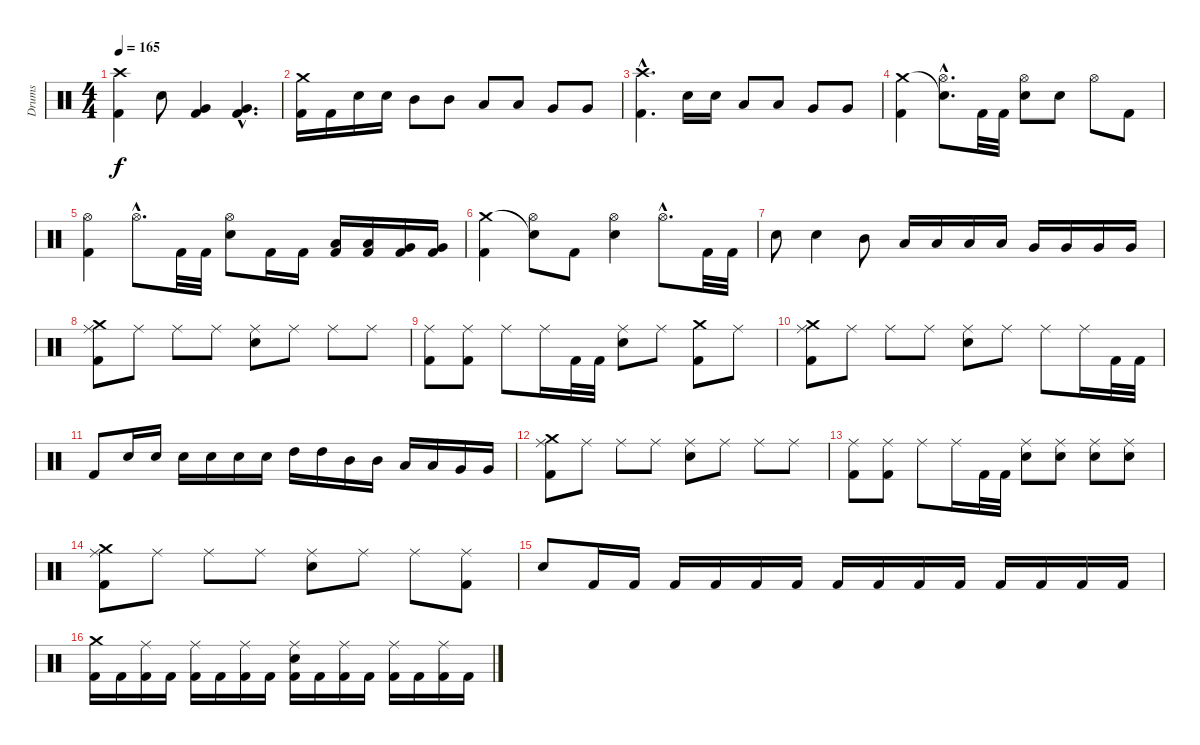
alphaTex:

\track ("Drums" "Drums") {instrument percussion}
\staff {score}
\articulation defaults
\ts (4 4)
\tempo 165
\clef neutral
\ks c
("Kick (hit) 2" "Crash high (hit)").4{dy f} "Electric Snare (hit)".8 ("Kick (hit) 2" "Very Low Tom (hit)").4 ("Kick (hit) 2"{hac} "Very Low Tom (hit)"{hac}).4{d} |
("Kick (hit) 2" "Crash medium (hit)").16 "Kick (hit) 2".16 "Electric Snare (hit)".16 "Electric Snare (hit)".16 "Mid Tom (hit)".8 "Mid Tom (hit)".8 "Low Tom (hit)".8 "Low Tom (hit)".8 "Very Low Tom (hit)".8 "Very Low Tom (hit)".8 |
("Kick (hit) 2"{hac} "Crash high (hit)"{hac}).4{d} "Electric Snare (hit)".16 "Electric Snare (hit)".16 "Low Tom (hit)".8 "Low Tom (hit)".8 "Very Low Tom (hit)".8 "Very Low Tom (hit)".8 |
("Kick (hit) 2" "Crash medium (hit)").4 ("Hi-Hat (open)"{hac} "Snare (hit)"{hac t}).8{d} "Kick (hit) 2".32 "Kick (hit) 2".32 ("Electric Snare (hit)" "Hi-Hat (open)").8 "Electric Snare (hit)".8 "Hi-Hat (open)".8 "Kick (hit) 2".8 |
("Kick (hit) 2" "Hi-Hat (open)").4 "Hi-Hat (open)"{hac}.8{d} "Kick (hit) 2".32 "Kick (hit) 2".32 ("Electric Snare (hit)" "Hi-Hat (open)").8 "Kick (hit) 2".16 "Kick (hit) 2".16 ("Kick (hit) 2" "Low Tom (hit)").16 ("Kick (hit) 2" "Low Tom (hit)").16 ("Kick (hit) 2" "Very Low Tom (hit)").16 ("Kick (hit) 2" "Very Low Tom (hit)").16 |
("Kick (hit) 2" "Crash medium (hit)").4 ("Hi-Hat (open)" "Snare (hit)"{t}).8 "Kick (hit) 2".8 ("Electric Snare (hit)" "Hi-Hat (open)").4 "Hi-Hat (open)"{hac}.8{d} "Kick (hit) 2".32 "Kick (hit) 2".32 |
"Electric Snare (hit)".8 "Electric Snare (hit)".4 "Mid Tom (hit)".8 "Low Tom (hit)".16 "Low Tom (hit)".16 "Low Tom (hit)".16 "Low Tom (hit)".16 "Very Low Tom (hit)".16 "Very Low Tom (hit)".16 "Very Low Tom (hit)".16 "Very Low Tom (hit)".16 |
("Kick (hit) 2" "Ride (middle)" "Crash medium (hit)").8 "Ride (middle)".8 "Ride (middle)".8 "Ride (middle)".8 ("Electric Snare (hit)" "Ride (middle)").8 "Ride (middle)".8 "Ride (middle)".8 "Ride (middle)".8 |
("Kick (hit) 2" "Ride (middle)").8 ("Kick (hit) 2" "Ride (middle)").8 "Ride (middle)".8 "Ride (middle)".16 "Kick (hit) 2".32 "Kick (hit) 2".32 ("Electric Snare (hit)" "Ride (middle)").8 "Ride (middle)".8 ("Kick (hit) 2" "Crash medium (hit)").8 "Ride (middle)".8 |
("Kick (hit) 2" "Ride (middle)" "Crash medium (hit)").8 "Ride (middle)".8 "Ride (middle)".8 "Ride (middle)".8 ("Electric Snare (hit)" "Ride (middle)").8 "Ride (middle)".8 "Ride (middle)".8 "Ride (middle)".16 "Kick (hit) 2".32 "Kick (hit) 2".32 |
"Kick (hit) 2".8 "Electric Snare (hit)".16 "Electric Snare (hit)".16 "Electric Snare (hit)".16 "Electric Snare (hit)".16 "Electric Snare (hit)".16 "Electric Snare (hit)".16 "High Tom (hit)".16 "High Tom (hit)".16 "Mid Tom (hit)".16 "Mid Tom (hit)".16 "Low Tom (hit)".16 "Low Tom (hit)".16 "Very Low Tom (hit)".16 "Very Low Tom (hit)".16 |
("Kick (hit) 2" "Ride (middle)" "Crash medium (hit)").8 "Ride (middle)".8 "Ride (middle)".8 "Ride (middle)".8 ("Electric Snare (hit)" "Ride (middle)").8 "Ride (middle)".8 "Ride (middle)".8 "Ride (middle)".8 |
("Kick (hit) 2" "Ride (middle)").8 ("Kick (hit) 2" "Ride (middle)").8 "Ride (middle)".8 "Ride (middle)".16 "Kick (hit) 2".32 "Kick (hit) 2".32 ("Electric Snare (hit)" "Ride (middle)").8 ("Electric Snare (hit)" "Ride (middle)").8 ("Electric Snare (hit)" "Ride (middle)").8 ("Electric Snare (hit)" "Ride (middle)").8 |
("Kick (hit) 2" "Ride (middle)" "Crash medium (hit)").8 "Ride (middle)".8 "Ride (middle)".8 "Ride (middle)".8 ("Electric Snare (hit)" "Ride (middle)").8 "Ride (middle)".8 "Ride (middle)".8 ("Kick (hit) 2" "Ride (middle)").8 |
"Electric Snare (hit)".8 "Kick (hit) 2".16 "Kick (hit) 2".16 "Kick (hit) 2".16 "Kick (hit) 2".16 "Kick (hit) 2".16 "Kick (hit) 2".16 "Kick (hit) 2".16 "Kick (hit) 2".16 "Kick (hit) 2".16 "Kick (hit) 2".16 "Kick (hit) 2".16 "Kick (hit) 2".16 "Kick (hit) 2".16 "Kick (hit) 2".16 |
("Kick (hit) 2" "Crash medium (hit)").16 "Kick (hit) 2".16 ("Kick (hit) 2" "Ride (middle)").16 "Kick (hit) 2".16 ("Kick (hit) 2" "Ride (middle)").16 "Kick (hit) 2".16 ("Kick (hit) 2" "Ride (middle)").16 "Kick (hit) 2".16 ("Kick (hit) 2" "Electric Snare (hit)" "Ride (middle)").16 "Kick (hit) 2".16 ("Kick (hit) 2" "Ride (middle)").16 "Kick (hit) 2".16 ("Kick (hit) 2" "Ride (middle)").16 "Kick (hit) 2".16 ("Kick (hit) 2" "Ride (middle)").16 "Kick (hit) 2".16
